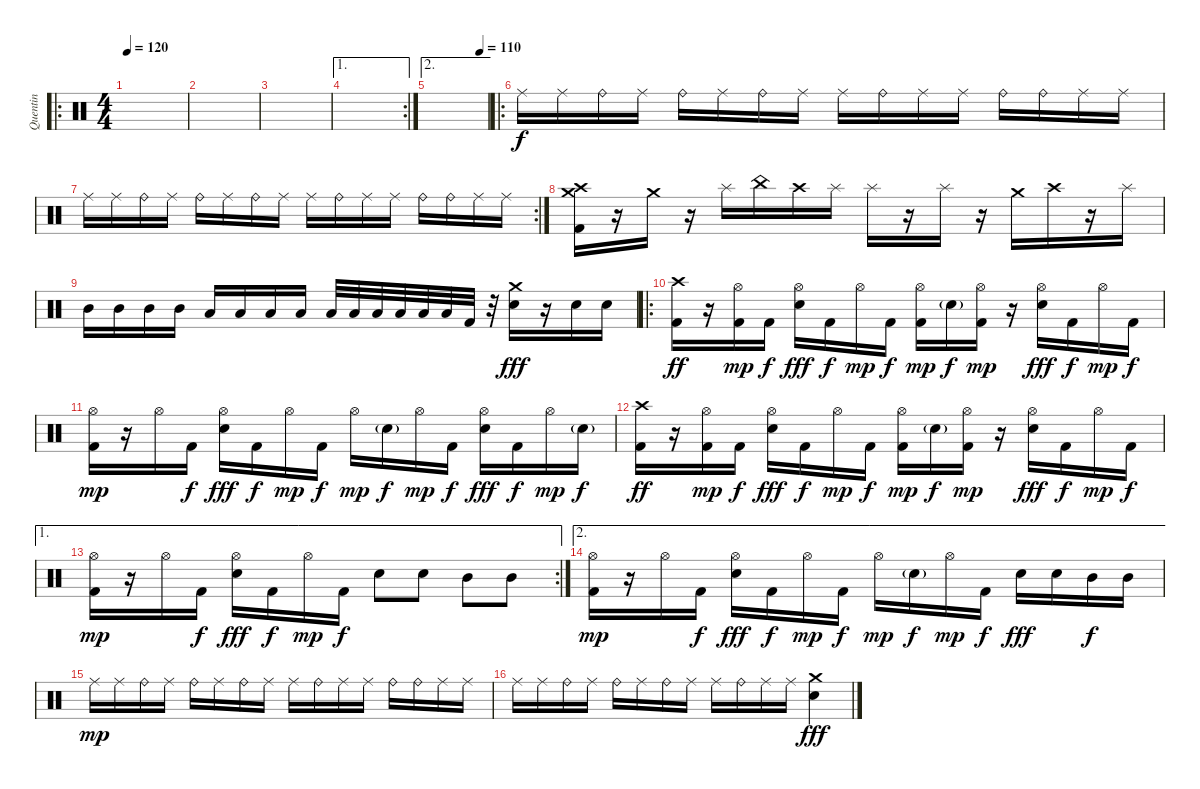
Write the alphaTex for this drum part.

\track ("Quentin" "Quentin") {instrument percussion}
\staff {score}
\articulation defaults
\ro
\ts (4 4)
\tempo 120
\clef neutral
\ks c
|
|
|
\ae 1
\rc 2
|
\ae 2
\tempo (110 0.875)
|
\ro "Ride (middle)".16 "Ride (middle)".16 "Ride (bell)".16 "Ride (middle)".16 "Ride (bell)".16 "Ride (middle)".16 "Ride (bell)".16 "Ride (middle)".16 "Ride (middle)".16 "Ride (bell)".16 "Ride (middle)".16 "Ride (middle)".16 "Ride (bell)".16 "Ride (bell)".16 "Ride (middle)".16 "Ride (middle)".16
|
\rc 2 "Ride (middle)".16 "Ride (middle)".16 "Ride (bell)".16 "Ride (middle)".16 "Ride (bell)".16 "Ride (middle)".16 "Ride (bell)".16 "Ride (middle)".16 "Ride (middle)".16 "Ride (bell)".16 "Ride (middle)".16 "Ride (middle)".16 "Ride (bell)".16 "Ride (bell)".16 "Ride (middle)".16 "Ride (middle)".16
|
("Crash high (hit)" "Crash medium (hit)" "Kick (hit) 2").16{dy f} r.16 "Crash medium (hit)".16 r.16 "Splash (hit)".16 "China (hit)".16 "Crash high (hit)".16 "Splash (hit)".16 "Splash (hit)".16 r.16 "Splash (hit)".16 r.16 "Crash medium (hit)".16 "Crash high (hit)".16 r.16 "Splash (hit)".16 |
"Mid Tom (hit)".16 "Mid Tom (hit)".16 "Mid Tom (hit)".16 "Mid Tom (hit)".16 "Low Tom (hit)".16 "Low Tom (hit)".16 "Low Tom (hit)".16 "Low Tom (hit)".16 "Low Tom (hit)".32 "Low Tom (hit)".32 "Low Tom (hit)".32 "Low Tom (hit)".32 "Low Tom (hit)".32 "Low Tom (hit)".32 "Kick (hit) 2".32 r.32 ("Electric Snare (hit)" "Crash medium (hit)").16{dy fff} r.16 "Electric Snare (hit)".16 "Electric Snare (hit)".16 |
\ro
("Crash high (hit)" "Kick (hit) 2").16{dy ff} r.16 ("Hi-Hat (open)" "Kick (hit) 2").16{dy mp} "Kick (hit) 2".16{dy f} ("Hi-Hat (open)" "Electric Snare (hit)").16{dy fff} "Kick (hit) 2".16{dy f} "Hi-Hat (open)".16{dy mp} "Kick (hit) 2".16{dy f} ("Hi-Hat (open)" "Kick (hit) 2").16{dy mp} "Electric Snare (hit)"{g}.16{dy f} ("Hi-Hat (open)" "Kick (hit) 2").16{dy mp} r.16 ("Hi-Hat (open)" "Electric Snare (hit)").16{dy fff} "Kick (hit) 2".16{dy f} "Hi-Hat (open)".16{dy mp} "Kick (hit) 2".16{dy f} |
("Hi-Hat (open)" "Kick (hit) 2").16{dy mp} r.16 "Hi-Hat (open)".16 "Kick (hit) 2".16{dy f} ("Hi-Hat (open)" "Electric Snare (hit)").16{dy fff} "Kick (hit) 2".16{dy f} "Hi-Hat (open)".16{dy mp} "Kick (hit) 2".16{dy f} "Hi-Hat (open)".16{dy mp} "Electric Snare (hit)"{g}.16{dy f} "Hi-Hat (open)".16{dy mp} "Kick (hit) 2".16{dy f} ("Hi-Hat (open)" "Electric Snare (hit)").16{dy fff} "Kick (hit) 2".16{dy f} "Hi-Hat (open)".16{dy mp} "Electric Snare (hit)"{g}.16{dy f} |
("Crash high (hit)" "Kick (hit) 2").16{dy ff} r.16 ("Hi-Hat (open)" "Kick (hit) 2").16{dy mp} "Kick (hit) 2".16{dy f} ("Hi-Hat (open)" "Electric Snare (hit)").16{dy fff} "Kick (hit) 2".16{dy f} "Hi-Hat (open)".16{dy mp} "Kick (hit) 2".16{dy f} ("Hi-Hat (open)" "Kick (hit) 2").16{dy mp} "Electric Snare (hit)"{g}.16{dy f} ("Hi-Hat (open)" "Kick (hit) 2").16{dy mp} r.16 ("Hi-Hat (open)" "Electric Snare (hit)").16{dy fff} "Kick (hit) 2".16{dy f} "Hi-Hat (open)".16{dy mp} "Kick (hit) 2".16{dy f} |
\ae 1
\rc 2
("Hi-Hat (open)" "Kick (hit) 2").16{dy mp} r.16 "Hi-Hat (open)".16 "Kick (hit) 2".16{dy f} ("Hi-Hat (open)" "Electric Snare (hit)").16{dy fff} "Kick (hit) 2".16{dy f} "Hi-Hat (open)".16{dy mp} "Kick (hit) 2".16{dy f} "Electric Snare (hit)".8 "Electric Snare (hit)".8 "Mid Tom (hit)".8 "Mid Tom (hit)".8 |
\ae 2
("Hi-Hat (open)" "Kick (hit) 2").16{dy mp} r.16 "Hi-Hat (open)".16 "Kick (hit) 2".16{dy f} ("Hi-Hat (open)" "Electric Snare (hit)").16{dy fff} "Kick (hit) 2".16{dy f} "Hi-Hat (open)".16{dy mp} "Kick (hit) 2".16{dy f} "Hi-Hat (open)".16{dy mp} "Electric Snare (hit)"{g}.16{dy f} "Hi-Hat (open)".16{dy mp} "Kick (hit) 2".16{dy f} "Electric Snare (hit)".16{dy fff} "Electric Snare (hit)".16 "Mid Tom (hit)".16{dy f} "Mid Tom (hit)".16 |
"Ride (middle)".16{dy mp volume 6} "Ride (middle)".16 "Ride (bell)".16 "Ride (middle)".16 "Ride (bell)".16 "Ride (middle)".16 "Ride (bell)".16 "Ride (middle)".16 "Ride (middle)".16 "Ride (bell)".16 "Ride (middle)".16 "Ride (middle)".16 "Ride (bell)".16 "Ride (bell)".16 "Ride (middle)".16 "Ride (middle)".16 |
"Ride (middle)".16 "Ride (middle)".16 "Ride (bell)".16 "Ride (middle)".16 "Ride (bell)".16 "Ride (middle)".16 "Ride (bell)".16 "Ride (middle)".16 "Ride (middle)".16 "Ride (bell)".16 "Ride (middle)".16 "Ride (middle)".16 ("Crash medium (hit)" "Electric Snare (hit)").4{dy fff volume 10}
